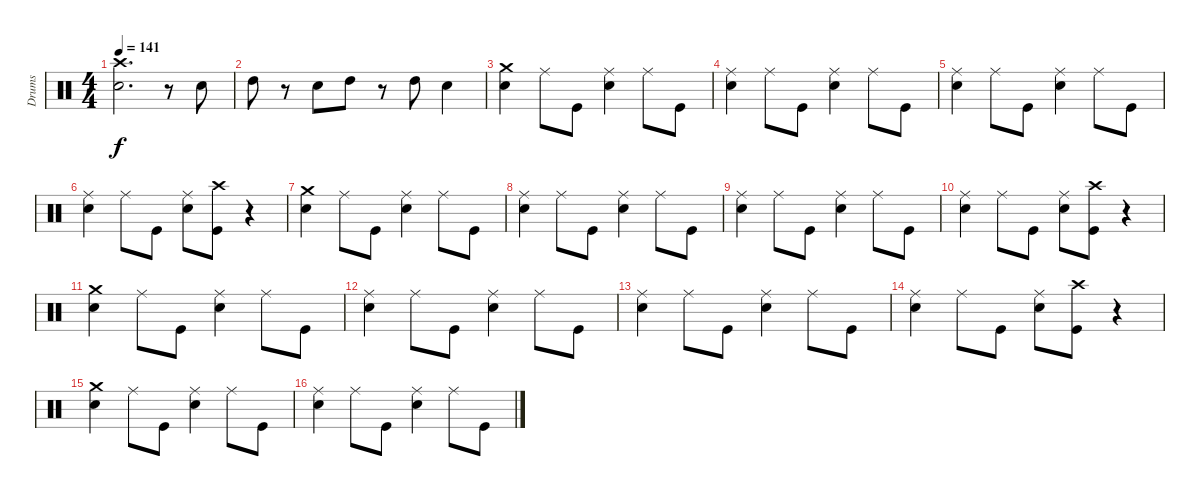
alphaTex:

\track ("Drums" "Drums") {instrument percussion}
\staff {score}
\articulation defaults
\ts (4 4)
\tempo 141
\clef neutral
\ks c
("Crash high (hit)" "Snare (hit) 2").2{d dy f} r.8 "Snare (hit) 2".8 |
"High Tom (hit)".8 r.8 "Snare (hit) 2".8 "High Tom (hit)".8 r.8 "High Tom (hit)".8 "Snare (hit) 2".4 |
("Crash medium (hit)" "Snare (hit) 2").4 "Ride (middle)".8 "Kick (hit)".8 ("Ride (middle)" "Snare (hit) 2").4 "Ride (middle)".8 "Kick (hit)".8 |
("Ride (middle)" "Snare (hit) 2").4 "Ride (middle)".8 "Kick (hit)".8 ("Ride (middle)" "Snare (hit) 2").4 "Ride (middle)".8 "Kick (hit)".8 |
("Ride (middle)" "Snare (hit) 2").4 "Ride (middle)".8 "Kick (hit)".8 ("Ride (middle)" "Snare (hit) 2").4 "Ride (middle)".8 "Kick (hit)".8 |
("Ride (middle)" "Snare (hit) 2").4 "Ride (middle)".8 "Kick (hit)".8 ("Ride (middle)" "Snare (hit) 2").8 ("Crash high (hit)" "Kick (hit)").8 r.4 |
("Crash medium (hit)" "Snare (hit) 2").4 "Ride (middle)".8 "Kick (hit)".8 ("Ride (middle)" "Snare (hit) 2").4 "Ride (middle)".8 "Kick (hit)".8 |
("Ride (middle)" "Snare (hit) 2").4 "Ride (middle)".8 "Kick (hit)".8 ("Ride (middle)" "Snare (hit) 2").4 "Ride (middle)".8 "Kick (hit)".8 |
("Ride (middle)" "Snare (hit) 2").4 "Ride (middle)".8 "Kick (hit)".8 ("Ride (middle)" "Snare (hit) 2").4 "Ride (middle)".8 "Kick (hit)".8 |
("Ride (middle)" "Snare (hit) 2").4 "Ride (middle)".8 "Kick (hit)".8 ("Ride (middle)" "Snare (hit) 2").8 ("Crash high (hit)" "Kick (hit)").8 r.4 |
("Crash medium (hit)" "Snare (hit) 2").4 "Ride (middle)".8 "Kick (hit)".8 ("Ride (middle)" "Snare (hit) 2").4 "Ride (middle)".8 "Kick (hit)".8 |
("Ride (middle)" "Snare (hit) 2").4 "Ride (middle)".8 "Kick (hit)".8 ("Ride (middle)" "Snare (hit) 2").4 "Ride (middle)".8 "Kick (hit)".8 |
("Ride (middle)" "Snare (hit) 2").4 "Ride (middle)".8 "Kick (hit)".8 ("Ride (middle)" "Snare (hit) 2").4 "Ride (middle)".8 "Kick (hit)".8 |
("Ride (middle)" "Snare (hit) 2").4 "Ride (middle)".8 "Kick (hit)".8 ("Ride (middle)" "Snare (hit) 2").8 ("Crash high (hit)" "Kick (hit)").8 r.4 |
("Crash medium (hit)" "Snare (hit) 2").4 "Ride (middle)".8 "Kick (hit)".8 ("Ride (middle)" "Snare (hit) 2").4 "Ride (middle)".8 "Kick (hit)".8 |
("Ride (middle)" "Snare (hit) 2").4 "Ride (middle)".8 "Kick (hit)".8 ("Ride (middle)" "Snare (hit) 2").4 "Ride (middle)".8 "Kick (hit)".8
